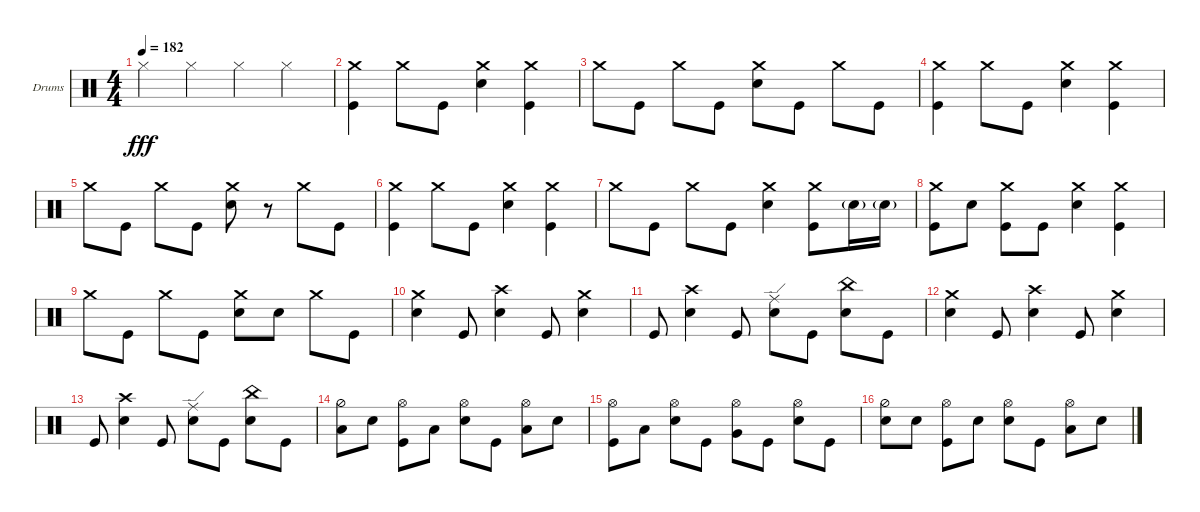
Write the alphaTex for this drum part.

\defaultSystemsLayout 4
\bracketExtendMode groupsimilarinstruments
\firstSystemTrackNameOrientation horizontal
\otherSystemsTrackNameOrientation horizontal
\track ("Drumkit" "Drums") {instrument percussion}
\staff {score}
\articulation defaults
\ts (4 4)
\tempo 182
\clef neutral
\ks c "Hi-Hat (closed)".4{dy fff} "Hi-Hat (closed)".4 "Hi-Hat (closed)".4 "Hi-Hat (closed)".4
|
("Kick (hit)" "Crash medium (hit)").4 "Crash medium (hit)".8 "Kick (hit)".8 ("Snare (hit) 2" "Crash medium (hit)").4 ("Kick (hit)" "Crash medium (hit)").4 |
"Crash medium (hit)".8 "Kick (hit)".8 "Crash medium (hit)".8 "Kick (hit)".8 ("Snare (hit) 2" "Crash medium (hit)").8 "Kick (hit)".8 "Crash medium (hit)".8 "Kick (hit)".8 |
("Kick (hit)" "Crash medium (hit)").4 "Crash medium (hit)".8 "Kick (hit)".8 ("Snare (hit) 2" "Crash medium (hit)").4 ("Kick (hit)" "Crash medium (hit)").4 |
"Crash medium (hit)".8 "Kick (hit)".8 "Crash medium (hit)".8 "Kick (hit)".8 ("Snare (hit) 2" "Crash medium (hit)").8 r.8 "Crash medium (hit)".8 "Kick (hit)".8 |
("Kick (hit)" "Crash medium (hit)").4 "Crash medium (hit)".8 "Kick (hit)".8 ("Snare (hit) 2" "Crash medium (hit)").4 ("Kick (hit)" "Crash medium (hit)").4 |
"Crash medium (hit)".8 "Kick (hit)".8 "Crash medium (hit)".8 "Kick (hit)".8 ("Snare (hit) 2" "Crash medium (hit)").4 ("Kick (hit)" "Crash medium (hit)").8 "Snare (hit) 2"{g}.16 "Snare (hit) 2"{g}.16 |
("Kick (hit)" "Crash medium (hit)").8 "Snare (hit) 2".8 ("Kick (hit)" "Crash medium (hit)").8 "Kick (hit)".8 ("Snare (hit) 2" "Crash medium (hit)").4 ("Kick (hit)" "Crash medium (hit)").4 |
"Crash medium (hit)".8 "Kick (hit)".8 "Crash medium (hit)".8 "Kick (hit)".8 ("Snare (hit) 2" "Crash medium (hit)").8 "Snare (hit) 2".8 "Crash medium (hit)".8 "Kick (hit)".8 |
("Snare (hit) 2" "Crash medium (hit)").4 "Kick (hit)".8 ("Snare (hit) 2" "Crash high (hit)").4 "Kick (hit)".8 ("Snare (hit) 2" "Crash medium (hit)").4 |
"Kick (hit)".8 ("Snare (hit) 2" "Crash high (hit)").4 "Kick (hit)".8 ("Snare (hit) 2" "Ride (edge)").8 "Kick (hit)".8 ("Snare (hit) 2" "China (hit)").8 "Kick (hit)".8 |
("Snare (hit) 2" "Crash medium (hit)").4 "Kick (hit)".8 ("Snare (hit) 2" "Crash high (hit)").4 "Kick (hit)".8 ("Snare (hit) 2" "Crash medium (hit)").4 |
"Kick (hit)".8 ("Snare (hit) 2" "Crash high (hit)").4 "Kick (hit)".8 ("Snare (hit) 2" "Ride (edge)").8 "Kick (hit)".8 ("Snare (hit) 2" "China (hit)").8 "Kick (hit)".8 |
("Low Tom (hit)" "Hi-Hat (half)").8 "Snare (hit) 2".8 ("Kick (hit)" "Hi-Hat (open)").8 "Low Tom (hit)".8 ("Snare (hit) 2" "Hi-Hat (open)").8 "Kick (hit)".8 ("Low Tom (hit)" "Hi-Hat (open)").8 "Snare (hit) 2".8 |
("Kick (hit)" "Hi-Hat (open)").8 "Low Tom (hit)".8 ("Snare (hit) 2" "Hi-Hat (open)").8 "Kick (hit)".8 ("Very Low Tom (hit)" "Hi-Hat (open)").8 "Kick (hit)".8 ("Snare (hit) 2" "Hi-Hat (open)").8 "Kick (hit)".8 |
("Snare (hit) 2" "Hi-Hat (half)").8 "Snare (hit) 2".8 ("Kick (hit)" "Hi-Hat (open)").8 "Snare (hit) 2".8 ("Snare (hit) 2" "Hi-Hat (open)").8 "Kick (hit)".8 ("Low Tom (hit)" "Hi-Hat (open)").8 "Snare (hit) 2".8
